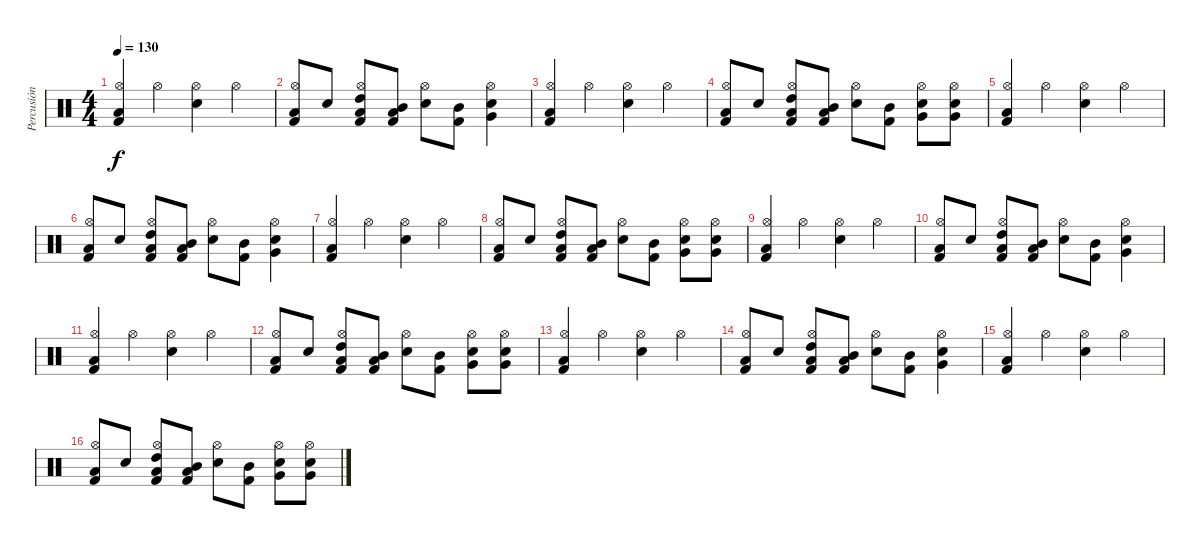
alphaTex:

\track ("Percusión" "Percusión") {instrument percussion}
\staff {score}
\articulation defaults
\ts (4 4)
\tempo 130
\clef neutral
\ks c
("Kick (hit) 2" "Hi-Hat (open)" "Low Floor Tom (hit)").4{dy f} "Hi-Hat (open)".4 ("Snare (hit) 2" "Hi-Hat (open)").4 "Hi-Hat (open)".4 |
("Low Floor Tom (hit)" "Kick (hit) 2" "Hi-Hat (open)").8 "Snare (hit) 2".8 ("Low Floor Tom (hit)" "Kick (hit) 2" "Hi-Hat (open)" "High Tom (hit)").8 ("Low Floor Tom (hit)" "Kick (hit) 2" "Mid Tom (hit)").8 ("Snare (hit) 2" "Hi-Hat (open)").8 ("Kick (hit) 2" "Mid Tom (hit)").8 ("Snare (hit) 2" "Hi-Hat (open)" "Very Low Tom (hit)").4 |
("Kick (hit) 2" "Hi-Hat (open)" "Low Floor Tom (hit)").4 "Hi-Hat (open)".4 ("Snare (hit) 2" "Hi-Hat (open)").4 "Hi-Hat (open)".4 |
("Low Floor Tom (hit)" "Kick (hit) 2" "Hi-Hat (open)").8 "Snare (hit) 2".8 ("Low Floor Tom (hit)" "Kick (hit) 2" "Hi-Hat (open)" "High Tom (hit)").8 ("Low Floor Tom (hit)" "Kick (hit) 2" "Mid Tom (hit)").8 ("Snare (hit) 2" "Hi-Hat (open)").8 ("Kick (hit) 2" "Mid Tom (hit)").8 ("Snare (hit) 2" "Hi-Hat (open)" "Very Low Tom (hit)").8 ("Snare (hit) 2" "Hi-Hat (open)" "Very Low Tom (hit)").8 |
("Kick (hit) 2" "Hi-Hat (open)" "Low Floor Tom (hit)").4 "Hi-Hat (open)".4 ("Snare (hit) 2" "Hi-Hat (open)").4 "Hi-Hat (open)".4 |
("Low Floor Tom (hit)" "Kick (hit) 2" "Hi-Hat (open)").8 "Snare (hit) 2".8 ("Low Floor Tom (hit)" "Kick (hit) 2" "Hi-Hat (open)" "High Tom (hit)").8 ("Low Floor Tom (hit)" "Kick (hit) 2" "Mid Tom (hit)").8 ("Snare (hit) 2" "Hi-Hat (open)").8 ("Kick (hit) 2" "Mid Tom (hit)").8 ("Snare (hit) 2" "Hi-Hat (open)" "Very Low Tom (hit)").4 |
("Kick (hit) 2" "Hi-Hat (open)" "Low Floor Tom (hit)").4 "Hi-Hat (open)".4 ("Snare (hit) 2" "Hi-Hat (open)").4 "Hi-Hat (open)".4 |
("Low Floor Tom (hit)" "Kick (hit) 2" "Hi-Hat (open)").8 "Snare (hit) 2".8 ("Low Floor Tom (hit)" "Kick (hit) 2" "Hi-Hat (open)" "High Tom (hit)").8 ("Low Floor Tom (hit)" "Kick (hit) 2" "Mid Tom (hit)").8 ("Snare (hit) 2" "Hi-Hat (open)").8 ("Kick (hit) 2" "Mid Tom (hit)").8 ("Snare (hit) 2" "Hi-Hat (open)" "Very Low Tom (hit)").8 ("Snare (hit) 2" "Hi-Hat (open)" "Very Low Tom (hit)").8 |
("Kick (hit) 2" "Hi-Hat (open)" "Low Floor Tom (hit)").4 "Hi-Hat (open)".4 ("Snare (hit) 2" "Hi-Hat (open)").4 "Hi-Hat (open)".4 |
("Low Floor Tom (hit)" "Kick (hit) 2" "Hi-Hat (open)").8 "Snare (hit) 2".8 ("Low Floor Tom (hit)" "Kick (hit) 2" "Hi-Hat (open)" "High Tom (hit)").8 ("Low Floor Tom (hit)" "Kick (hit) 2" "Mid Tom (hit)").8 ("Snare (hit) 2" "Hi-Hat (open)").8 ("Kick (hit) 2" "Mid Tom (hit)").8 ("Snare (hit) 2" "Hi-Hat (open)" "Very Low Tom (hit)").4 |
("Kick (hit) 2" "Hi-Hat (open)" "Low Floor Tom (hit)").4 "Hi-Hat (open)".4 ("Snare (hit) 2" "Hi-Hat (open)").4 "Hi-Hat (open)".4 |
("Low Floor Tom (hit)" "Kick (hit) 2" "Hi-Hat (open)").8 "Snare (hit) 2".8 ("Low Floor Tom (hit)" "Kick (hit) 2" "Hi-Hat (open)" "High Tom (hit)").8 ("Low Floor Tom (hit)" "Kick (hit) 2" "Mid Tom (hit)").8 ("Snare (hit) 2" "Hi-Hat (open)").8 ("Kick (hit) 2" "Mid Tom (hit)").8 ("Snare (hit) 2" "Hi-Hat (open)" "Very Low Tom (hit)").8 ("Snare (hit) 2" "Hi-Hat (open)" "Very Low Tom (hit)").8 |
("Kick (hit) 2" "Hi-Hat (open)" "Low Floor Tom (hit)").4 "Hi-Hat (open)".4 ("Snare (hit) 2" "Hi-Hat (open)").4 "Hi-Hat (open)".4 |
("Low Floor Tom (hit)" "Kick (hit) 2" "Hi-Hat (open)").8 "Snare (hit) 2".8 ("Low Floor Tom (hit)" "Kick (hit) 2" "Hi-Hat (open)" "High Tom (hit)").8 ("Low Floor Tom (hit)" "Kick (hit) 2" "Mid Tom (hit)").8 ("Snare (hit) 2" "Hi-Hat (open)").8 ("Kick (hit) 2" "Mid Tom (hit)").8 ("Snare (hit) 2" "Hi-Hat (open)" "Very Low Tom (hit)").4 |
("Kick (hit) 2" "Hi-Hat (open)" "Low Floor Tom (hit)").4 "Hi-Hat (open)".4 ("Snare (hit) 2" "Hi-Hat (open)").4 "Hi-Hat (open)".4 |
("Low Floor Tom (hit)" "Kick (hit) 2" "Hi-Hat (open)").8 "Snare (hit) 2".8 ("Low Floor Tom (hit)" "Kick (hit) 2" "Hi-Hat (open)" "High Tom (hit)").8 ("Low Floor Tom (hit)" "Kick (hit) 2" "Mid Tom (hit)").8 ("Snare (hit) 2" "Hi-Hat (open)").8 ("Kick (hit) 2" "Mid Tom (hit)").8 ("Snare (hit) 2" "Hi-Hat (open)" "Very Low Tom (hit)").8 ("Snare (hit) 2" "Hi-Hat (open)" "Very Low Tom (hit)").8
